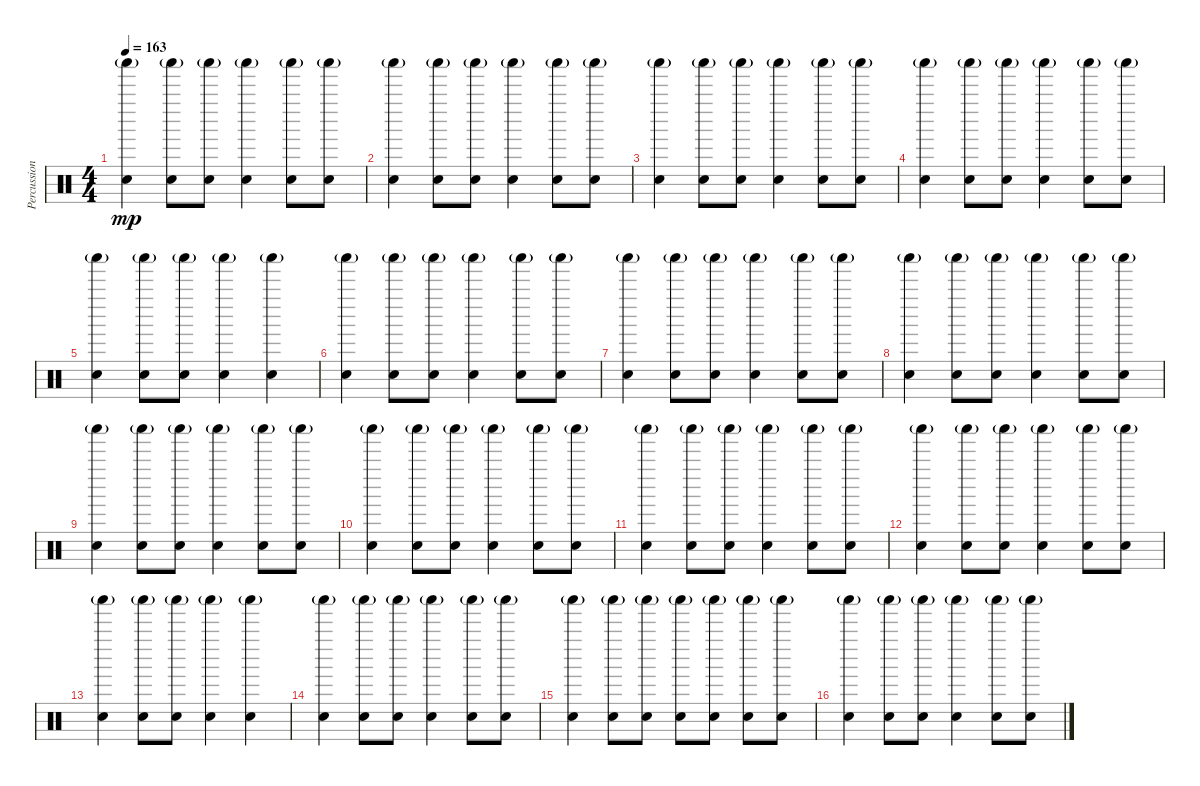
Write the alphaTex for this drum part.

\track ("Percussion" "Percussion") {instrument percussion}
\staff {score}
\articulation defaults
\ts (4 4)
\tempo 163
\clef neutral
\ks c
("Shaker (hit)"{g} "Snare (hit) 2").4{dy mp} ("Shaker (hit)"{g} "Snare (hit) 2").8 ("Shaker (hit)"{g} "Snare (hit) 2").8 ("Shaker (hit)"{g} "Snare (hit) 2").4 ("Shaker (hit)"{g} "Snare (hit) 2").8 ("Shaker (hit)"{g} "Snare (hit) 2").8 |
("Shaker (hit)"{g} "Snare (hit) 2").4 ("Shaker (hit)"{g} "Snare (hit) 2").8 ("Shaker (hit)"{g} "Snare (hit) 2").8 ("Shaker (hit)"{g} "Snare (hit) 2").4 ("Shaker (hit)"{g} "Snare (hit) 2").8 ("Shaker (hit)"{g} "Snare (hit) 2").8 |
("Shaker (hit)"{g} "Snare (hit) 2").4 ("Shaker (hit)"{g} "Snare (hit) 2").8 ("Shaker (hit)"{g} "Snare (hit) 2").8 ("Shaker (hit)"{g} "Snare (hit) 2").4 ("Shaker (hit)"{g} "Snare (hit) 2").8 ("Shaker (hit)"{g} "Snare (hit) 2").8 |
("Shaker (hit)"{g} "Snare (hit) 2").4 ("Shaker (hit)"{g} "Snare (hit) 2").8 ("Shaker (hit)"{g} "Snare (hit) 2").8 ("Shaker (hit)"{g} "Snare (hit) 2").4 ("Shaker (hit)"{g} "Snare (hit) 2").8 ("Shaker (hit)"{g} "Snare (hit) 2").8 |
("Shaker (hit)"{g} "Snare (hit) 2").4 ("Shaker (hit)"{g} "Snare (hit) 2").8 ("Shaker (hit)"{g} "Snare (hit) 2").8 ("Shaker (hit)"{g} "Snare (hit) 2").4 ("Shaker (hit)"{g} "Snare (hit) 2").4 |
("Shaker (hit)"{g} "Snare (hit) 2").4 ("Shaker (hit)"{g} "Snare (hit) 2").8 ("Shaker (hit)"{g} "Snare (hit) 2").8 ("Shaker (hit)"{g} "Snare (hit) 2").4 ("Shaker (hit)"{g} "Snare (hit) 2").8 ("Shaker (hit)"{g} "Snare (hit) 2").8 |
("Shaker (hit)"{g} "Snare (hit) 2").4 ("Shaker (hit)"{g} "Snare (hit) 2").8 ("Shaker (hit)"{g} "Snare (hit) 2").8 ("Shaker (hit)"{g} "Snare (hit) 2").4 ("Shaker (hit)"{g} "Snare (hit) 2").8 ("Shaker (hit)"{g} "Snare (hit) 2").8 |
("Shaker (hit)"{g} "Snare (hit) 2").4 ("Shaker (hit)"{g} "Snare (hit) 2").8 ("Shaker (hit)"{g} "Snare (hit) 2").8 ("Shaker (hit)"{g} "Snare (hit) 2").4 ("Shaker (hit)"{g} "Snare (hit) 2").8 ("Shaker (hit)"{g} "Snare (hit) 2").8 |
("Shaker (hit)"{g} "Snare (hit) 2").4 ("Shaker (hit)"{g} "Snare (hit) 2").8 ("Shaker (hit)"{g} "Snare (hit) 2").8 ("Shaker (hit)"{g} "Snare (hit) 2").4 ("Shaker (hit)"{g} "Snare (hit) 2").8 ("Shaker (hit)"{g} "Snare (hit) 2").8 |
("Shaker (hit)"{g} "Snare (hit) 2").4 ("Shaker (hit)"{g} "Snare (hit) 2").8 ("Shaker (hit)"{g} "Snare (hit) 2").8 ("Shaker (hit)"{g} "Snare (hit) 2").4 ("Shaker (hit)"{g} "Snare (hit) 2").8 ("Shaker (hit)"{g} "Snare (hit) 2").8 |
("Shaker (hit)"{g} "Snare (hit) 2").4 ("Shaker (hit)"{g} "Snare (hit) 2").8 ("Shaker (hit)"{g} "Snare (hit) 2").8 ("Shaker (hit)"{g} "Snare (hit) 2").4 ("Shaker (hit)"{g} "Snare (hit) 2").8 ("Shaker (hit)"{g} "Snare (hit) 2").8 |
("Shaker (hit)"{g} "Snare (hit) 2").4 ("Shaker (hit)"{g} "Snare (hit) 2").8 ("Shaker (hit)"{g} "Snare (hit) 2").8 ("Shaker (hit)"{g} "Snare (hit) 2").4 ("Shaker (hit)"{g} "Snare (hit) 2").8 ("Shaker (hit)"{g} "Snare (hit) 2").8 |
("Shaker (hit)"{g} "Snare (hit) 2").4 ("Shaker (hit)"{g} "Snare (hit) 2").8 ("Shaker (hit)"{g} "Snare (hit) 2").8 ("Shaker (hit)"{g} "Snare (hit) 2").4 ("Shaker (hit)"{g} "Snare (hit) 2").4 |
("Shaker (hit)"{g} "Snare (hit) 2").4 ("Shaker (hit)"{g} "Snare (hit) 2").8 ("Shaker (hit)"{g} "Snare (hit) 2").8 ("Shaker (hit)"{g} "Snare (hit) 2").4 ("Shaker (hit)"{g} "Snare (hit) 2").8 ("Shaker (hit)"{g} "Snare (hit) 2").8 |
("Shaker (hit)"{g} "Snare (hit) 2").4 ("Shaker (hit)"{g} "Snare (hit) 2").8 ("Shaker (hit)"{g} "Snare (hit) 2").8 ("Shaker (hit)"{g} "Snare (hit) 2").8 ("Shaker (hit)"{g} "Snare (hit) 2").8 ("Shaker (hit)"{g} "Snare (hit) 2").8 ("Shaker (hit)"{g} "Snare (hit) 2").8 |
("Shaker (hit)"{g} "Snare (hit) 2").4 ("Shaker (hit)"{g} "Snare (hit) 2").8 ("Shaker (hit)"{g} "Snare (hit) 2").8 ("Shaker (hit)"{g} "Snare (hit) 2").4 ("Shaker (hit)"{g} "Snare (hit) 2").8 ("Shaker (hit)"{g} "Snare (hit) 2").8
